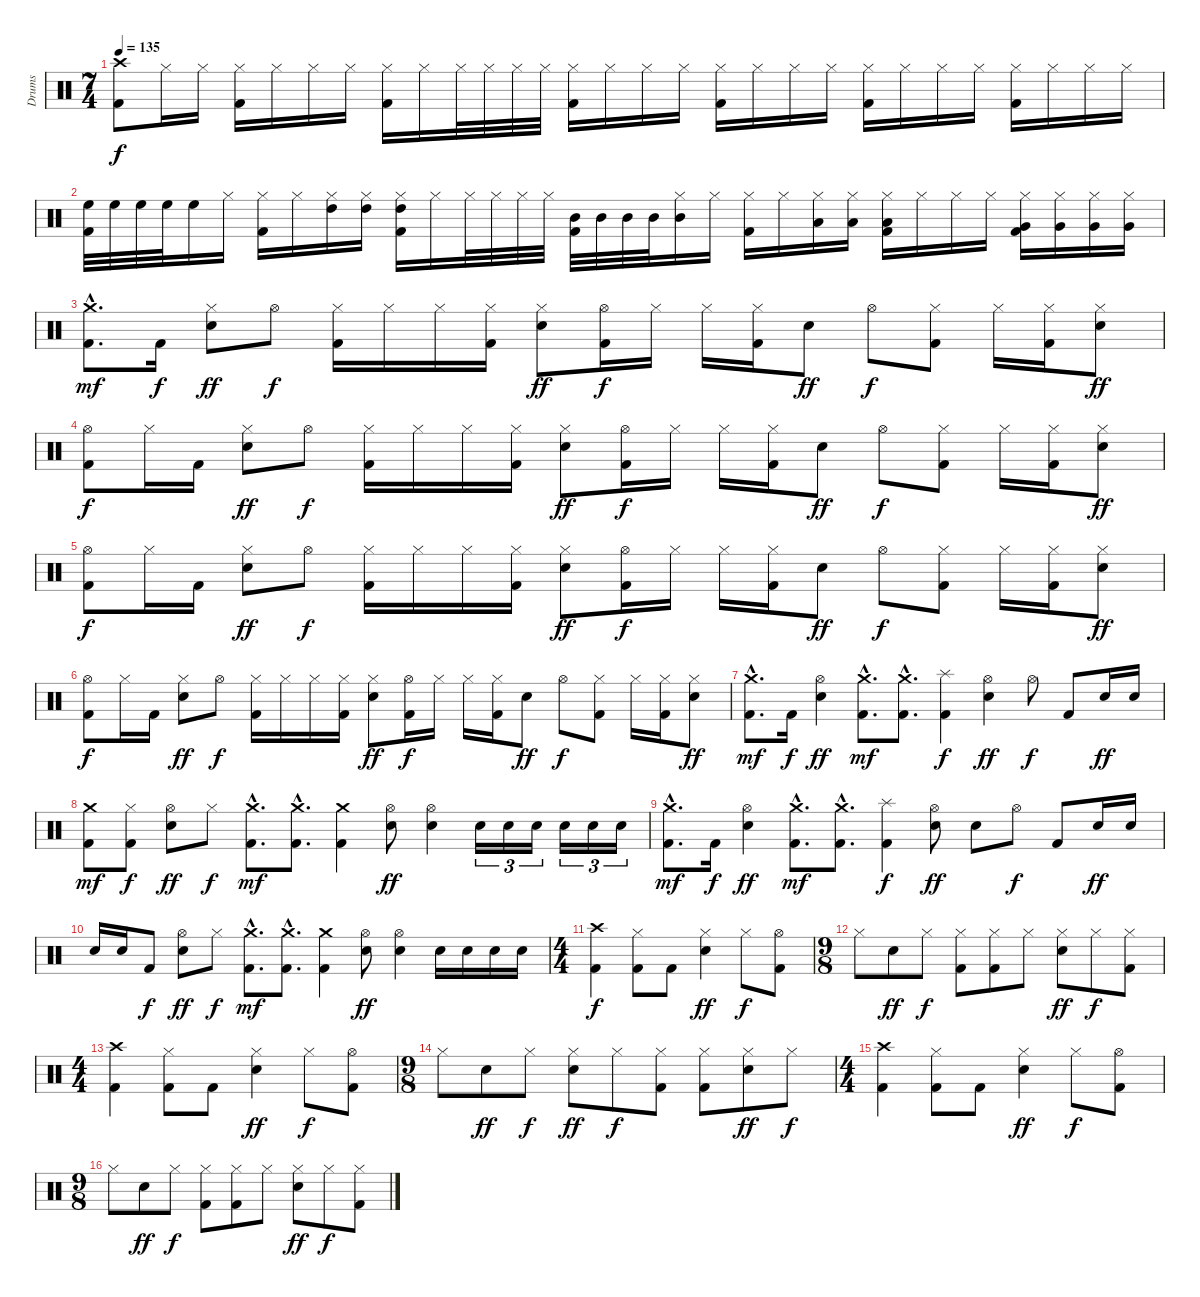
\track ("Drums" "Drums") {instrument percussion}
\staff {score}
\articulation defaults
\ts (7 4)
\tempo 135
\clef neutral
\ks c
("Kick (hit) 2" "Crash high (hit)").8{dy f} "Hi-Hat (closed)".16 "Hi-Hat (closed)".16 ("Kick (hit) 2" "Hi-Hat (closed)").16 "Hi-Hat (closed)".16 "Hi-Hat (closed)".16 "Hi-Hat (closed)".16 ("Kick (hit) 2" "Hi-Hat (closed)").16 "Hi-Hat (closed)".16 "Hi-Hat (closed)".32 "Hi-Hat (closed)".32 "Hi-Hat (closed)".32 "Hi-Hat (closed)".32 ("Kick (hit) 2" "Hi-Hat (closed)").16 "Hi-Hat (closed)".16 "Hi-Hat (closed)".16 "Hi-Hat (closed)".16 ("Kick (hit) 2" "Hi-Hat (closed)").16 "Hi-Hat (closed)".16 "Hi-Hat (closed)".16 "Hi-Hat (closed)".16 ("Kick (hit) 2" "Hi-Hat (closed)").16 "Hi-Hat (closed)".16 "Hi-Hat (closed)".16 "Hi-Hat (closed)".16 ("Kick (hit) 2" "Hi-Hat (closed)").16 "Hi-Hat (closed)".16 "Hi-Hat (closed)".16 "Hi-Hat (closed)".16 |
("Kick (hit) 2" "High Floor Tom (hit)").32 "High Floor Tom (hit)".32 "High Floor Tom (hit)".32 "High Floor Tom (hit)".32 "High Floor Tom (hit)".16 "Hi-Hat (closed)".16 ("Kick (hit) 2" "Hi-Hat (closed)").16 "Hi-Hat (closed)".16 ("High Tom (hit)" "Hi-Hat (closed)").16 ("High Tom (hit)" "Hi-Hat (closed)").16 ("Kick (hit) 2" "High Tom (hit)" "Hi-Hat (closed)").16 "Hi-Hat (closed)".16 "Hi-Hat (closed)".32 "Hi-Hat (closed)".32 "Hi-Hat (closed)".32 "Hi-Hat (closed)".32 ("Kick (hit) 2" "Mid Tom (hit)").32 "Mid Tom (hit)".32 "Mid Tom (hit)".32 "Mid Tom (hit)".32 ("Mid Tom (hit)" "Hi-Hat (closed)").16 "Hi-Hat (closed)".16 ("Kick (hit) 2" "Hi-Hat (closed)").16 "Hi-Hat (closed)".16 ("Low Tom (hit)" "Hi-Hat (closed)").16 ("Low Tom (hit)" "Hi-Hat (closed)").16 ("Kick (hit) 2" "Low Tom (hit)" "Hi-Hat (closed)").16 "Hi-Hat (closed)".16 "Hi-Hat (closed)".16 "Hi-Hat (closed)".16 ("Kick (hit) 2" "Very Low Tom (hit)" "Hi-Hat (closed)").16 ("Very Low Tom (hit)" "Hi-Hat (closed)").16 ("Very Low Tom (hit)" "Hi-Hat (closed)").16 ("Very Low Tom (hit)" "Hi-Hat (closed)").16 |
("Kick (hit) 2"{hac} "Crash medium (hit)"{hac}).8{d dy mf} "Kick (hit) 2".16{dy f} ("Electric Snare (hit)" "Hi-Hat (closed)").8{dy ff} "Hi-Hat (open)".8{dy f} ("Kick (hit) 2" "Hi-Hat (closed)").16 "Hi-Hat (closed)".16 "Hi-Hat (closed)".16 ("Kick (hit) 2" "Hi-Hat (closed)").16 ("Electric Snare (hit)" "Hi-Hat (closed)").8{dy ff} ("Kick (hit) 2" "Hi-Hat (open)").16{dy f} "Hi-Hat (closed)".16 "Hi-Hat (closed)".16 ("Kick (hit) 2" "Hi-Hat (closed)").16 "Electric Snare (hit)".8{dy ff} "Hi-Hat (open)".8{dy f} ("Kick (hit) 2" "Hi-Hat (closed)").8 "Hi-Hat (closed)".16 ("Kick (hit) 2" "Hi-Hat (closed)").16 ("Electric Snare (hit)" "Hi-Hat (closed)").8{dy ff} |
("Kick (hit) 2" "Hi-Hat (open)").8{dy f} "Hi-Hat (closed)".16 "Kick (hit) 2".16 ("Electric Snare (hit)" "Hi-Hat (closed)").8{dy ff} "Hi-Hat (open)".8{dy f} ("Kick (hit) 2" "Hi-Hat (closed)").16 "Hi-Hat (closed)".16 "Hi-Hat (closed)".16 ("Kick (hit) 2" "Hi-Hat (closed)").16 ("Electric Snare (hit)" "Hi-Hat (closed)").8{dy ff} ("Kick (hit) 2" "Hi-Hat (open)").16{dy f} "Hi-Hat (closed)".16 "Hi-Hat (closed)".16 ("Kick (hit) 2" "Hi-Hat (closed)").16 "Electric Snare (hit)".8{dy ff} "Hi-Hat (open)".8{dy f} ("Kick (hit) 2" "Hi-Hat (closed)").8 "Hi-Hat (closed)".16 ("Kick (hit) 2" "Hi-Hat (closed)").16 ("Electric Snare (hit)" "Hi-Hat (closed)").8{dy ff} |
("Kick (hit) 2" "Hi-Hat (open)").8{dy f} "Hi-Hat (closed)".16 "Kick (hit) 2".16 ("Electric Snare (hit)" "Hi-Hat (closed)").8{dy ff} "Hi-Hat (open)".8{dy f} ("Kick (hit) 2" "Hi-Hat (closed)").16 "Hi-Hat (closed)".16 "Hi-Hat (closed)".16 ("Kick (hit) 2" "Hi-Hat (closed)").16 ("Electric Snare (hit)" "Hi-Hat (closed)").8{dy ff} ("Kick (hit) 2" "Hi-Hat (open)").16{dy f} "Hi-Hat (closed)".16 "Hi-Hat (closed)".16 ("Kick (hit) 2" "Hi-Hat (closed)").16 "Electric Snare (hit)".8{dy ff} "Hi-Hat (open)".8{dy f} ("Kick (hit) 2" "Hi-Hat (closed)").8 "Hi-Hat (closed)".16 ("Kick (hit) 2" "Hi-Hat (closed)").16 ("Electric Snare (hit)" "Hi-Hat (closed)").8{dy ff} |
("Kick (hit) 2" "Hi-Hat (open)").8{dy f} "Hi-Hat (closed)".16 "Kick (hit) 2".16 ("Electric Snare (hit)" "Hi-Hat (closed)").8{dy ff} "Hi-Hat (open)".8{dy f} ("Kick (hit) 2" "Hi-Hat (closed)").16 "Hi-Hat (closed)".16 "Hi-Hat (closed)".16 ("Kick (hit) 2" "Hi-Hat (closed)").16 ("Electric Snare (hit)" "Hi-Hat (closed)").8{dy ff} ("Kick (hit) 2" "Hi-Hat (open)").16{dy f} "Hi-Hat (closed)".16 "Hi-Hat (closed)".16 ("Kick (hit) 2" "Hi-Hat (closed)").16 "Electric Snare (hit)".8{dy ff} "Hi-Hat (open)".8{dy f} ("Kick (hit) 2" "Hi-Hat (closed)").8 "Hi-Hat (closed)".16 ("Kick (hit) 2" "Hi-Hat (closed)").16 ("Electric Snare (hit)" "Hi-Hat (closed)").8{dy ff} |
("Kick (hit) 2"{hac} "Crash medium (hit)"{hac}).8{d dy mf} "Kick (hit) 2".16{dy f} ("Electric Snare (hit)" "Hi-Hat (open)").4{dy ff} ("Kick (hit) 2"{hac} "Crash medium (hit)"{hac}).8{d dy mf} ("Kick (hit) 2"{hac} "Crash medium (hit)"{hac}).8{d} ("Kick (hit) 2" "Splash (hit)").4{dy f} ("Electric Snare (hit)" "Hi-Hat (open)").4{dy ff} "Hi-Hat (open)".8{dy f} "Kick (hit) 2".8 "Electric Snare (hit)".16{dy ff} "Electric Snare (hit)".16 |
("Kick (hit) 2" "Crash medium (hit)").8{dy mf} ("Kick (hit) 2" "Hi-Hat (closed)").8{dy f} ("Electric Snare (hit)" "Hi-Hat (open)").8{dy ff} "Hi-Hat (closed)".8{dy f} ("Kick (hit) 2"{hac} "Crash medium (hit)"{hac}).8{d dy mf} ("Kick (hit) 2"{hac} "Crash medium (hit)"{hac}).8{d} ("Kick (hit) 2" "Crash medium (hit)").4 ("Electric Snare (hit)" "Hi-Hat (open)").8{dy ff} ("Electric Snare (hit)" "Hi-Hat (open)").4 "Electric Snare (hit)".16{tu (3 2)} "Electric Snare (hit)".16{tu (3 2)} "Electric Snare (hit)".16{tu (3 2)} "Electric Snare (hit)".16{tu (3 2)} "Electric Snare (hit)".16{tu (3 2)} "Electric Snare (hit)".16{tu (3 2)} |
("Kick (hit) 2"{hac} "Crash medium (hit)"{hac}).8{d dy mf} "Kick (hit) 2".16{dy f} ("Electric Snare (hit)" "Hi-Hat (open)").4{dy ff} ("Kick (hit) 2"{hac} "Crash medium (hit)"{hac}).8{d dy mf} ("Kick (hit) 2"{hac} "Crash medium (hit)"{hac}).8{d} ("Kick (hit) 2" "Splash (hit)").4{dy f} ("Electric Snare (hit)" "Hi-Hat (open)").8{dy ff} "Electric Snare (hit)".8 "Hi-Hat (open)".8{dy f} "Kick (hit) 2".8 "Electric Snare (hit)".16{dy ff} "Electric Snare (hit)".16 |
"Electric Snare (hit)".16 "Electric Snare (hit)".16 "Kick (hit) 2".8{dy f} ("Electric Snare (hit)" "Hi-Hat (open)").8{dy ff} "Hi-Hat (closed)".8{dy f} ("Kick (hit) 2"{hac} "Crash medium (hit)"{hac}).8{d dy mf} ("Kick (hit) 2"{hac} "Crash medium (hit)"{hac}).8{d} ("Kick (hit) 2" "Crash medium (hit)").4 ("Electric Snare (hit)" "Hi-Hat (open)").8{dy ff} ("Electric Snare (hit)" "Hi-Hat (open)").4 "Electric Snare (hit)".16 "Electric Snare (hit)".16 "Electric Snare (hit)".16 "Electric Snare (hit)".16 |
\ts (4 4)
("Kick (hit) 2" "Crash high (hit)").4{dy f} ("Kick (hit) 2" "Hi-Hat (closed)").8 "Kick (hit) 2".8 ("Electric Snare (hit)" "Hi-Hat (closed)").4{dy ff} "Hi-Hat (closed)".8{dy f} ("Kick (hit) 2" "Hi-Hat (open)").8 |
\ts (9 8)
"Hi-Hat (closed)".8 "Electric Snare (hit)".8{dy ff} "Hi-Hat (closed)".8{dy f} ("Kick (hit) 2" "Hi-Hat (closed)").8 ("Kick (hit) 2" "Hi-Hat (closed)").8 "Hi-Hat (closed)".8 ("Electric Snare (hit)" "Hi-Hat (closed)").8{dy ff} "Hi-Hat (closed)".8{dy f} ("Kick (hit) 2" "Hi-Hat (closed)").8 |
\ts (4 4)
("Kick (hit) 2" "Crash high (hit)").4 ("Kick (hit) 2" "Hi-Hat (closed)").8 "Kick (hit) 2".8 ("Electric Snare (hit)" "Hi-Hat (closed)").4{dy ff} "Hi-Hat (closed)".8{dy f} ("Kick (hit) 2" "Hi-Hat (open)").8 |
\ts (9 8)
"Hi-Hat (closed)".8 "Electric Snare (hit)".8{dy ff} "Hi-Hat (closed)".8{dy f} ("Electric Snare (hit)" "Hi-Hat (closed)").8{dy ff} "Hi-Hat (closed)".8{dy f} ("Kick (hit) 2" "Hi-Hat (closed)").8 ("Kick (hit) 2" "Hi-Hat (closed)").8 ("Electric Snare (hit)" "Hi-Hat (closed)").8{dy ff} "Hi-Hat (closed)".8{dy f} |
\ts (4 4)
("Kick (hit) 2" "Crash high (hit)").4 ("Kick (hit) 2" "Hi-Hat (closed)").8 "Kick (hit) 2".8 ("Electric Snare (hit)" "Hi-Hat (closed)").4{dy ff} "Hi-Hat (closed)".8{dy f} ("Kick (hit) 2" "Hi-Hat (open)").8 |
\ts (9 8)
"Hi-Hat (closed)".8 "Electric Snare (hit)".8{dy ff} "Hi-Hat (closed)".8{dy f} ("Kick (hit) 2" "Hi-Hat (closed)").8 ("Kick (hit) 2" "Hi-Hat (closed)").8 "Hi-Hat (closed)".8 ("Electric Snare (hit)" "Hi-Hat (closed)").8{dy ff} "Hi-Hat (closed)".8{dy f} ("Kick (hit) 2" "Hi-Hat (closed)").8
